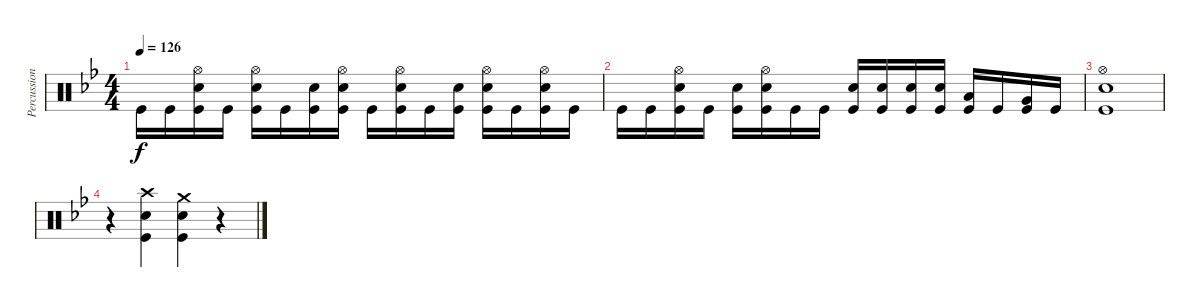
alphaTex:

\track ("Percussion" "Percussion") {instrument percussion}
\staff {score}
\articulation defaults
\ts (4 4)
\tempo 126
\clef neutral
\ks gminor "Kick (hit)".16{dy f} "Kick (hit)".16
("Kick (hit)" "Snare (hit) 2" "Hi-Hat (open)").16 "Kick (hit)".16 ("Kick (hit)" "Snare (hit) 2" "Hi-Hat (open)").16 "Kick (hit)".16 ("Snare (hit) 2" "Kick (hit)").16 ("Kick (hit)" "Snare (hit) 2" "Hi-Hat (open)").16 "Kick (hit)".16 ("Kick (hit)" "Snare (hit) 2" "Hi-Hat (open)").16 "Kick (hit)".16 ("Kick (hit)" "Snare (hit) 2").16 ("Kick (hit)" "Snare (hit) 2" "Hi-Hat (open)").16 "Kick (hit)".16 ("Kick (hit)" "Snare (hit) 2" "Hi-Hat (open)").16 "Kick (hit)".16 |
"Kick (hit)".16 "Kick (hit)".16 ("Kick (hit)" "Snare (hit) 2" "Hi-Hat (open)").16 "Kick (hit)".16 ("Kick (hit)" "Snare (hit) 2").16 ("Kick (hit)" "Snare (hit) 2" "Hi-Hat (open)").16 "Kick (hit)".16 "Kick (hit)".16 ("Kick (hit)" "Snare (hit) 2").16 ("Kick (hit)" "Snare (hit) 2").16 ("Kick (hit)" "Snare (hit) 2").16 ("Kick (hit)" "Snare (hit) 2").16 ("Kick (hit)" "Low Tom (hit)").16 "Kick (hit)".16 ("Kick (hit)" "Very Low Tom (hit)").16 "Kick (hit)".16 |
("Hi-Hat (open)" "Snare (hit) 2" "Kick (hit)").1 |
r.4 ("Kick (hit)" "Snare (hit) 2" "Crash high (hit)").4 ("Kick (hit)" "Snare (hit) 2" "Crash medium (hit)").4 r.4
